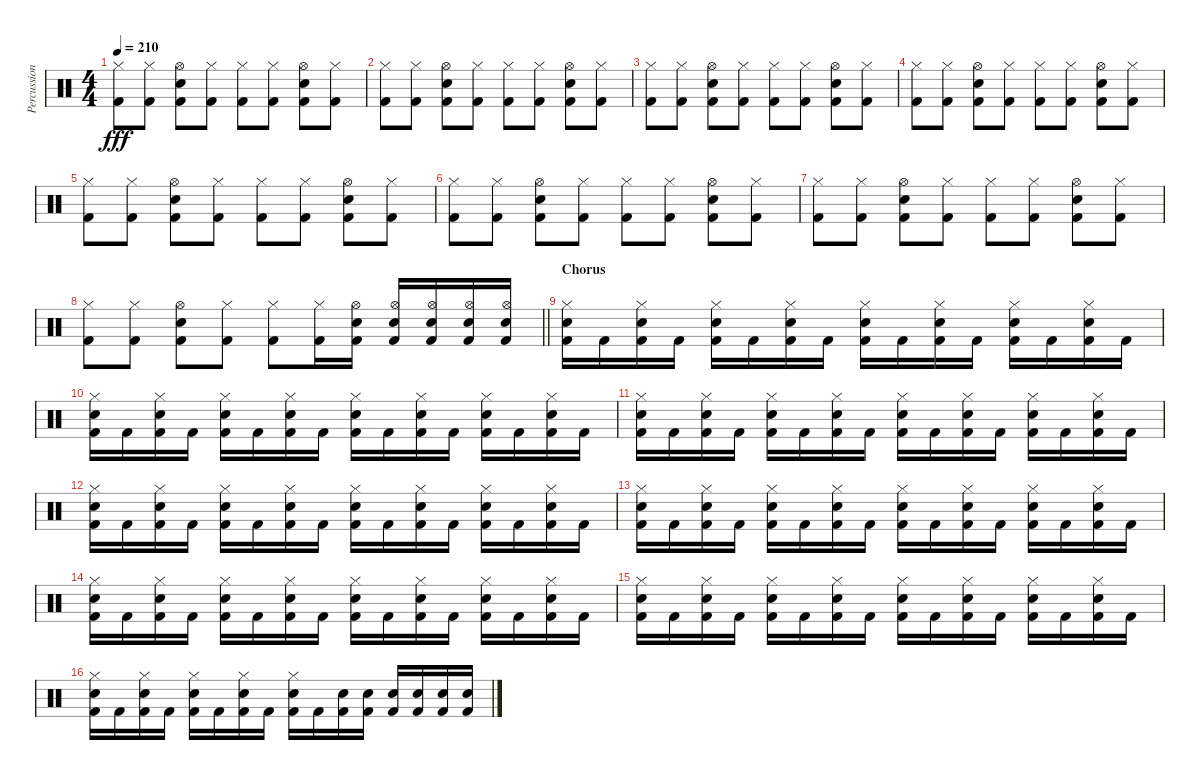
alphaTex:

\track ("Percussion" "Percussion") {instrument percussion}
\staff {score}
\articulation defaults
\ts (4 4)
\tempo 210
\clef neutral
\ks c
("Hi-Hat (closed)" "Kick (hit) 2").8{dy fff} ("Hi-Hat (closed)" "Kick (hit) 2").8 ("Hi-Hat (open)" "Electric Snare (hit)" "Kick (hit) 2").8 ("Hi-Hat (closed)" "Kick (hit) 2").8 ("Hi-Hat (closed)" "Kick (hit) 2").8 ("Hi-Hat (closed)" "Kick (hit) 2").8 ("Hi-Hat (open)" "Electric Snare (hit)" "Kick (hit) 2").8 ("Hi-Hat (closed)" "Kick (hit) 2").8 |
("Hi-Hat (closed)" "Kick (hit) 2").8 ("Hi-Hat (closed)" "Kick (hit) 2").8 ("Hi-Hat (open)" "Electric Snare (hit)" "Kick (hit) 2").8 ("Hi-Hat (closed)" "Kick (hit) 2").8 ("Hi-Hat (closed)" "Kick (hit) 2").8 ("Hi-Hat (closed)" "Kick (hit) 2").8 ("Hi-Hat (open)" "Electric Snare (hit)" "Kick (hit) 2").8 ("Hi-Hat (closed)" "Kick (hit) 2").8 |
("Hi-Hat (closed)" "Kick (hit) 2").8 ("Hi-Hat (closed)" "Kick (hit) 2").8 ("Hi-Hat (open)" "Electric Snare (hit)" "Kick (hit) 2").8 ("Hi-Hat (closed)" "Kick (hit) 2").8 ("Hi-Hat (closed)" "Kick (hit) 2").8 ("Hi-Hat (closed)" "Kick (hit) 2").8 ("Hi-Hat (open)" "Electric Snare (hit)" "Kick (hit) 2").8 ("Hi-Hat (closed)" "Kick (hit) 2").8 |
("Hi-Hat (closed)" "Kick (hit) 2").8 ("Hi-Hat (closed)" "Kick (hit) 2").8 ("Hi-Hat (open)" "Electric Snare (hit)" "Kick (hit) 2").8 ("Hi-Hat (closed)" "Kick (hit) 2").8 ("Hi-Hat (closed)" "Kick (hit) 2").8 ("Hi-Hat (closed)" "Kick (hit) 2").8 ("Hi-Hat (open)" "Electric Snare (hit)" "Kick (hit) 2").8 ("Hi-Hat (closed)" "Kick (hit) 2").8 |
("Hi-Hat (closed)" "Kick (hit) 2").8 ("Hi-Hat (closed)" "Kick (hit) 2").8 ("Hi-Hat (open)" "Electric Snare (hit)" "Kick (hit) 2").8 ("Hi-Hat (closed)" "Kick (hit) 2").8 ("Hi-Hat (closed)" "Kick (hit) 2").8 ("Hi-Hat (closed)" "Kick (hit) 2").8 ("Hi-Hat (open)" "Electric Snare (hit)" "Kick (hit) 2").8 ("Hi-Hat (closed)" "Kick (hit) 2").8 |
("Hi-Hat (closed)" "Kick (hit) 2").8 ("Hi-Hat (closed)" "Kick (hit) 2").8 ("Hi-Hat (open)" "Electric Snare (hit)" "Kick (hit) 2").8 ("Hi-Hat (closed)" "Kick (hit) 2").8 ("Hi-Hat (closed)" "Kick (hit) 2").8 ("Hi-Hat (closed)" "Kick (hit) 2").8 ("Hi-Hat (open)" "Electric Snare (hit)" "Kick (hit) 2").8 ("Hi-Hat (closed)" "Kick (hit) 2").8 |
("Hi-Hat (closed)" "Kick (hit) 2").8 ("Hi-Hat (closed)" "Kick (hit) 2").8 ("Hi-Hat (open)" "Electric Snare (hit)" "Kick (hit) 2").8 ("Hi-Hat (closed)" "Kick (hit) 2").8 ("Hi-Hat (closed)" "Kick (hit) 2").8 ("Hi-Hat (closed)" "Kick (hit) 2").8 ("Hi-Hat (open)" "Electric Snare (hit)" "Kick (hit) 2").8 ("Hi-Hat (closed)" "Kick (hit) 2").8 |
\barLineRight lightlight
("Hi-Hat (closed)" "Kick (hit) 2").8 ("Hi-Hat (closed)" "Kick (hit) 2").8 ("Hi-Hat (open)" "Electric Snare (hit)" "Kick (hit) 2").8 ("Hi-Hat (closed)" "Kick (hit) 2").8 ("Hi-Hat (closed)" "Kick (hit) 2").8 ("Hi-Hat (closed)" "Kick (hit) 2").16 ("Hi-Hat (open)" "Electric Snare (hit)" "Kick (hit) 2").16 ("Hi-Hat (open)" "Electric Snare (hit)" "Kick (hit) 2").16 ("Hi-Hat (open)" "Electric Snare (hit)" "Kick (hit) 2").16 ("Hi-Hat (open)" "Electric Snare (hit)" "Kick (hit) 2").16 ("Hi-Hat (open)" "Electric Snare (hit)" "Kick (hit) 2").16 |
\section ("" "Chorus")
("Hi-Hat (closed)" "Electric Snare (hit)" "Kick (hit) 2").16{volume 16} "Kick (hit) 2".16 ("Hi-Hat (closed)" "Electric Snare (hit)" "Kick (hit) 2").16 "Kick (hit) 2".16 ("Hi-Hat (closed)" "Electric Snare (hit)" "Kick (hit) 2").16 "Kick (hit) 2".16 ("Hi-Hat (closed)" "Electric Snare (hit)" "Kick (hit) 2").16 "Kick (hit) 2".16 ("Hi-Hat (closed)" "Electric Snare (hit)" "Kick (hit) 2").16 "Kick (hit) 2".16 ("Hi-Hat (closed)" "Electric Snare (hit)" "Kick (hit) 2").16 "Kick (hit) 2".16 ("Hi-Hat (closed)" "Electric Snare (hit)" "Kick (hit) 2").16 "Kick (hit) 2".16 ("Hi-Hat (closed)" "Electric Snare (hit)" "Kick (hit) 2").16 "Kick (hit) 2".16 |
("Hi-Hat (closed)" "Electric Snare (hit)" "Kick (hit) 2").16 "Kick (hit) 2".16 ("Hi-Hat (closed)" "Electric Snare (hit)" "Kick (hit) 2").16 "Kick (hit) 2".16 ("Hi-Hat (closed)" "Electric Snare (hit)" "Kick (hit) 2").16 "Kick (hit) 2".16 ("Hi-Hat (closed)" "Electric Snare (hit)" "Kick (hit) 2").16 "Kick (hit) 2".16 ("Hi-Hat (closed)" "Electric Snare (hit)" "Kick (hit) 2").16 "Kick (hit) 2".16 ("Hi-Hat (closed)" "Electric Snare (hit)" "Kick (hit) 2").16 "Kick (hit) 2".16 ("Hi-Hat (closed)" "Electric Snare (hit)" "Kick (hit) 2").16 "Kick (hit) 2".16 ("Hi-Hat (closed)" "Electric Snare (hit)" "Kick (hit) 2").16 "Kick (hit) 2".16 |
("Hi-Hat (closed)" "Electric Snare (hit)" "Kick (hit) 2").16 "Kick (hit) 2".16 ("Hi-Hat (closed)" "Electric Snare (hit)" "Kick (hit) 2").16 "Kick (hit) 2".16 ("Hi-Hat (closed)" "Electric Snare (hit)" "Kick (hit) 2").16 "Kick (hit) 2".16 ("Hi-Hat (closed)" "Electric Snare (hit)" "Kick (hit) 2").16 "Kick (hit) 2".16 ("Hi-Hat (closed)" "Electric Snare (hit)" "Kick (hit) 2").16 "Kick (hit) 2".16 ("Hi-Hat (closed)" "Electric Snare (hit)" "Kick (hit) 2").16 "Kick (hit) 2".16 ("Hi-Hat (closed)" "Electric Snare (hit)" "Kick (hit) 2").16 "Kick (hit) 2".16 ("Hi-Hat (closed)" "Electric Snare (hit)" "Kick (hit) 2").16 "Kick (hit) 2".16 |
("Hi-Hat (closed)" "Electric Snare (hit)" "Kick (hit) 2").16 "Kick (hit) 2".16 ("Hi-Hat (closed)" "Electric Snare (hit)" "Kick (hit) 2").16 "Kick (hit) 2".16 ("Hi-Hat (closed)" "Electric Snare (hit)" "Kick (hit) 2").16 "Kick (hit) 2".16 ("Hi-Hat (closed)" "Electric Snare (hit)" "Kick (hit) 2").16 "Kick (hit) 2".16 ("Hi-Hat (closed)" "Electric Snare (hit)" "Kick (hit) 2").16 "Kick (hit) 2".16 ("Hi-Hat (closed)" "Electric Snare (hit)" "Kick (hit) 2").16 "Kick (hit) 2".16 ("Hi-Hat (closed)" "Electric Snare (hit)" "Kick (hit) 2").16 "Kick (hit) 2".16 ("Hi-Hat (closed)" "Electric Snare (hit)" "Kick (hit) 2").16 "Kick (hit) 2".16 |
("Hi-Hat (closed)" "Electric Snare (hit)" "Kick (hit) 2").16 "Kick (hit) 2".16 ("Hi-Hat (closed)" "Electric Snare (hit)" "Kick (hit) 2").16 "Kick (hit) 2".16 ("Hi-Hat (closed)" "Electric Snare (hit)" "Kick (hit) 2").16 "Kick (hit) 2".16 ("Hi-Hat (closed)" "Electric Snare (hit)" "Kick (hit) 2").16 "Kick (hit) 2".16 ("Hi-Hat (closed)" "Electric Snare (hit)" "Kick (hit) 2").16 "Kick (hit) 2".16 ("Hi-Hat (closed)" "Electric Snare (hit)" "Kick (hit) 2").16 "Kick (hit) 2".16 ("Hi-Hat (closed)" "Electric Snare (hit)" "Kick (hit) 2").16 "Kick (hit) 2".16 ("Hi-Hat (closed)" "Electric Snare (hit)" "Kick (hit) 2").16 "Kick (hit) 2".16 |
("Hi-Hat (closed)" "Electric Snare (hit)" "Kick (hit) 2").16 "Kick (hit) 2".16 ("Hi-Hat (closed)" "Electric Snare (hit)" "Kick (hit) 2").16 "Kick (hit) 2".16 ("Hi-Hat (closed)" "Electric Snare (hit)" "Kick (hit) 2").16 "Kick (hit) 2".16 ("Hi-Hat (closed)" "Electric Snare (hit)" "Kick (hit) 2").16 "Kick (hit) 2".16 ("Hi-Hat (closed)" "Electric Snare (hit)" "Kick (hit) 2").16 "Kick (hit) 2".16 ("Hi-Hat (closed)" "Electric Snare (hit)" "Kick (hit) 2").16 "Kick (hit) 2".16 ("Hi-Hat (closed)" "Electric Snare (hit)" "Kick (hit) 2").16 "Kick (hit) 2".16 ("Hi-Hat (closed)" "Electric Snare (hit)" "Kick (hit) 2").16 "Kick (hit) 2".16 |
("Hi-Hat (closed)" "Electric Snare (hit)" "Kick (hit) 2").16 "Kick (hit) 2".16 ("Hi-Hat (closed)" "Electric Snare (hit)" "Kick (hit) 2").16 "Kick (hit) 2".16 ("Hi-Hat (closed)" "Electric Snare (hit)" "Kick (hit) 2").16 "Kick (hit) 2".16 ("Hi-Hat (closed)" "Electric Snare (hit)" "Kick (hit) 2").16 "Kick (hit) 2".16 ("Hi-Hat (closed)" "Electric Snare (hit)" "Kick (hit) 2").16 "Kick (hit) 2".16 ("Hi-Hat (closed)" "Electric Snare (hit)" "Kick (hit) 2").16 "Kick (hit) 2".16 ("Hi-Hat (closed)" "Electric Snare (hit)" "Kick (hit) 2").16 "Kick (hit) 2".16 ("Hi-Hat (closed)" "Electric Snare (hit)" "Kick (hit) 2").16 "Kick (hit) 2".16 |
("Hi-Hat (closed)" "Electric Snare (hit)" "Kick (hit) 2").16 "Kick (hit) 2".16 ("Hi-Hat (closed)" "Electric Snare (hit)" "Kick (hit) 2").16 "Kick (hit) 2".16 ("Hi-Hat (closed)" "Electric Snare (hit)" "Kick (hit) 2").16 "Kick (hit) 2".16 ("Hi-Hat (closed)" "Electric Snare (hit)" "Kick (hit) 2").16 "Kick (hit) 2".16 ("Hi-Hat (closed)" "Electric Snare (hit)" "Kick (hit) 2").16 "Kick (hit) 2".16 ("Electric Snare (hit)" "Kick (hit) 2").16 ("Electric Snare (hit)" "Kick (hit) 2").16 ("Electric Snare (hit)" "Kick (hit) 2").16 ("Electric Snare (hit)" "Kick (hit) 2").16 ("Electric Snare (hit)" "Kick (hit) 2").16 ("Electric Snare (hit)" "Kick (hit) 2").16
